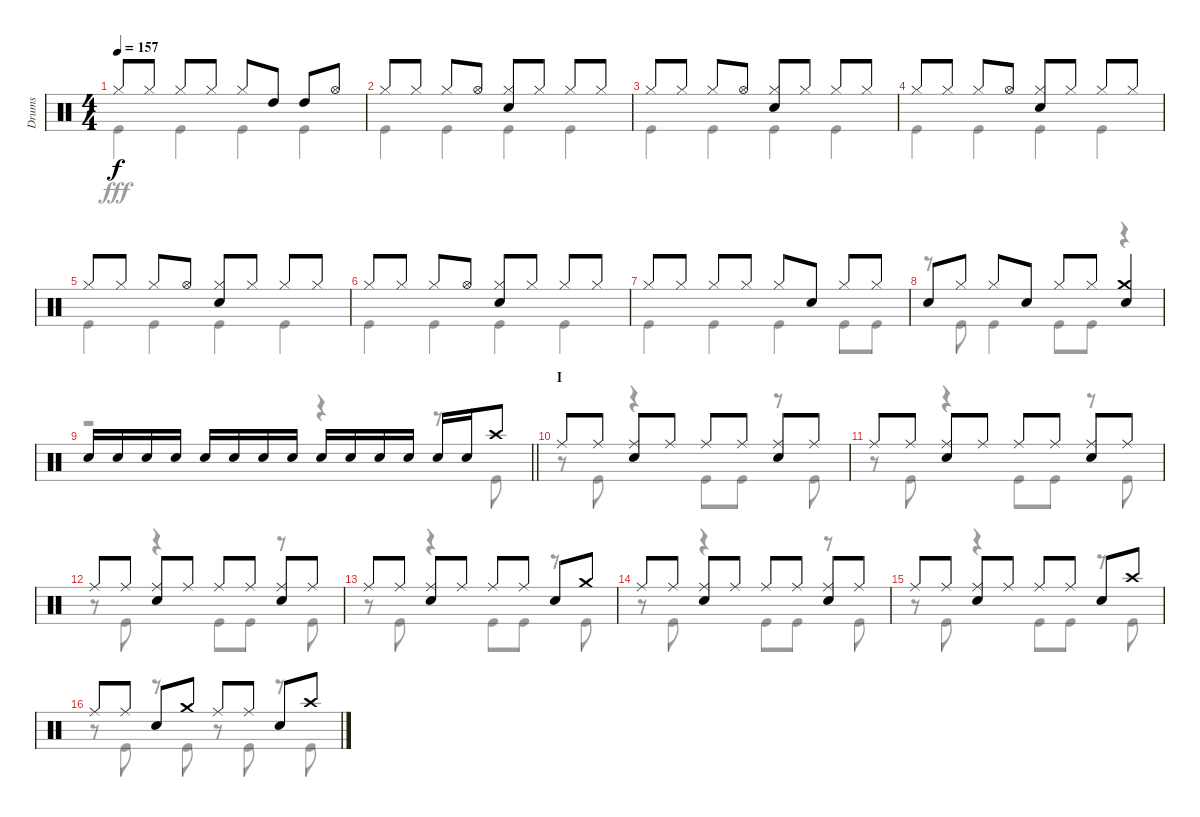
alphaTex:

\track ("Drums" "Drums") {instrument percussion}
\staff {score}
\articulation defaults
\voice
\ts (4 4)
\tempo 157
\clef neutral
\ks c "Hi-Hat (closed)".8{dy f} "Hi-Hat (closed)".8 "Hi-Hat (closed)".8 "Hi-Hat (closed)".8 "Hi-Hat (closed)".8 "High Tom (hit)".8 "High Tom (hit)".8 "Hi-Hat (open)".8
|
"Hi-Hat (closed)".8 "Hi-Hat (closed)".8 "Hi-Hat (closed)".8 "Hi-Hat (open)".8 ("Hi-Hat (closed)" "Snare (hit) 2").8 "Hi-Hat (closed)".8 "Hi-Hat (closed)".8 "Hi-Hat (closed)".8 |
"Hi-Hat (closed)".8 "Hi-Hat (closed)".8 "Hi-Hat (closed)".8 "Hi-Hat (open)".8 ("Hi-Hat (closed)" "Snare (hit) 2").8 "Hi-Hat (closed)".8 "Hi-Hat (closed)".8 "Hi-Hat (closed)".8 |
"Hi-Hat (closed)".8 "Hi-Hat (closed)".8 "Hi-Hat (closed)".8 "Hi-Hat (open)".8 ("Hi-Hat (closed)" "Snare (hit) 2").8 "Hi-Hat (closed)".8 "Hi-Hat (closed)".8 "Hi-Hat (closed)".8 |
"Hi-Hat (closed)".8 "Hi-Hat (closed)".8 "Hi-Hat (closed)".8 "Hi-Hat (open)".8 ("Hi-Hat (closed)" "Snare (hit) 2").8 "Hi-Hat (closed)".8 "Hi-Hat (closed)".8 "Hi-Hat (closed)".8 |
"Hi-Hat (closed)".8 "Hi-Hat (closed)".8 "Hi-Hat (closed)".8 "Hi-Hat (open)".8 ("Hi-Hat (closed)" "Snare (hit) 2").8 "Hi-Hat (closed)".8 "Hi-Hat (closed)".8 "Hi-Hat (closed)".8 |
"Hi-Hat (closed)".8 "Hi-Hat (closed)".8 "Hi-Hat (closed)".8 "Hi-Hat (closed)".8 "Hi-Hat (closed)".8 "Snare (hit) 2".8 "Hi-Hat (closed)".8 "Hi-Hat (closed)".8 |
"Snare (hit) 2".8 "Hi-Hat (closed)".8 "Hi-Hat (closed)".8 "Snare (hit) 2".8 "Hi-Hat (closed)".8 "Hi-Hat (closed)".8 ("Crash medium (hit)" "Snare (hit) 2").4 |
\barLineRight lightlight "Snare (hit) 2".16 "Snare (hit) 2".16 "Snare (hit) 2".16 "Snare (hit) 2".16 "Snare (hit) 2".16 "Snare (hit) 2".16 "Snare (hit) 2".16 "Snare (hit) 2".16 "Snare (hit) 2".16 "Snare (hit) 2".16 "Snare (hit) 2".16 "Snare (hit) 2".16 "Snare (hit) 2".16 "Snare (hit) 2".16 "Crash high (hit)".8
|
\section ("" "I")
"Ride (middle)".8 "Ride (middle)".8 ("Ride (middle)" "Snare (hit) 2").8 "Ride (middle)".8 "Ride (middle)".8 "Ride (middle)".8 ("Ride (middle)" "Snare (hit) 2").8 "Ride (middle)".8 |
"Ride (middle)".8 "Ride (middle)".8 ("Ride (middle)" "Snare (hit) 2").8 "Ride (middle)".8 "Ride (middle)".8 "Ride (middle)".8 ("Ride (middle)" "Snare (hit) 2").8 "Ride (middle)".8 |
"Ride (middle)".8 "Ride (middle)".8 ("Ride (middle)" "Snare (hit) 2").8 "Ride (middle)".8 "Ride (middle)".8 "Ride (middle)".8 ("Ride (middle)" "Snare (hit) 2").8 "Ride (middle)".8 |
"Ride (middle)".8 "Ride (middle)".8 ("Ride (middle)" "Snare (hit) 2").8 "Ride (middle)".8 "Ride (middle)".8 "Ride (middle)".8 "Snare (hit) 2".8 "Crash medium (hit)".8 |
"Ride (middle)".8 "Ride (middle)".8 ("Ride (middle)" "Snare (hit) 2").8 "Ride (middle)".8 "Ride (middle)".8 "Ride (middle)".8 ("Ride (middle)" "Snare (hit) 2").8 "Ride (middle)".8 |
"Ride (middle)".8 "Ride (middle)".8 ("Ride (middle)" "Snare (hit) 2").8 "Ride (middle)".8 "Ride (middle)".8 "Ride (middle)".8 "Snare (hit) 2".8 "Crash high (hit)".8 |
"Ride (middle)".8 "Ride (middle)".8 "Snare (hit) 2".8 "Crash medium (hit)".8 "Ride (middle)".8 "Ride (middle)".8 "Snare (hit) 2".8 "Crash high (hit)".8
\voice
\clef neutral
\ottava regular
\simile none
\ks c "Kick (hit)".4{dy fff} "Kick (hit)".4 "Kick (hit)".4 "Kick (hit)".4
|
"Kick (hit)".4 "Kick (hit)".4 "Kick (hit)".4 "Kick (hit)".4 |
"Kick (hit)".4 "Kick (hit)".4 "Kick (hit)".4 "Kick (hit)".4 |
"Kick (hit)".4 "Kick (hit)".4 "Kick (hit)".4 "Kick (hit)".4 |
"Kick (hit)".4 "Kick (hit)".4 "Kick (hit)".4 "Kick (hit)".4 |
"Kick (hit)".4 "Kick (hit)".4 "Kick (hit)".4 "Kick (hit)".4 |
"Kick (hit)".4 "Kick (hit)".4 "Kick (hit)".4 "Kick (hit)".8 "Kick (hit)".8 |
r.8 "Kick (hit)".8 "Kick (hit)".4 "Kick (hit)".8 "Kick (hit)".8 r.4 |
\barLineRight lightlight
r.2 r.4 r.8 "Kick (hit)".8 |
r.8 "Kick (hit)".8 r.4 "Kick (hit)".8 "Kick (hit)".8 r.8 "Kick (hit)".8 |
r.8 "Kick (hit)".8 r.4 "Kick (hit)".8 "Kick (hit)".8 r.8 "Kick (hit)".8 |
r.8 "Kick (hit)".8 r.4 "Kick (hit)".8 "Kick (hit)".8 r.8 "Kick (hit)".8 |
r.8 "Kick (hit)".8 r.4 "Kick (hit)".8 "Kick (hit)".8 r.8 "Kick (hit)".8 |
r.8 "Kick (hit)".8 r.4 "Kick (hit)".8 "Kick (hit)".8 r.8 "Kick (hit)".8 |
r.8 "Kick (hit)".8 r.4 "Kick (hit)".8 "Kick (hit)".8 r.8 "Kick (hit)".8 |
r.8 "Kick (hit)".8 r.8 "Kick (hit)".8 r.8 "Kick (hit)".8 r.8 "Kick (hit)".8
